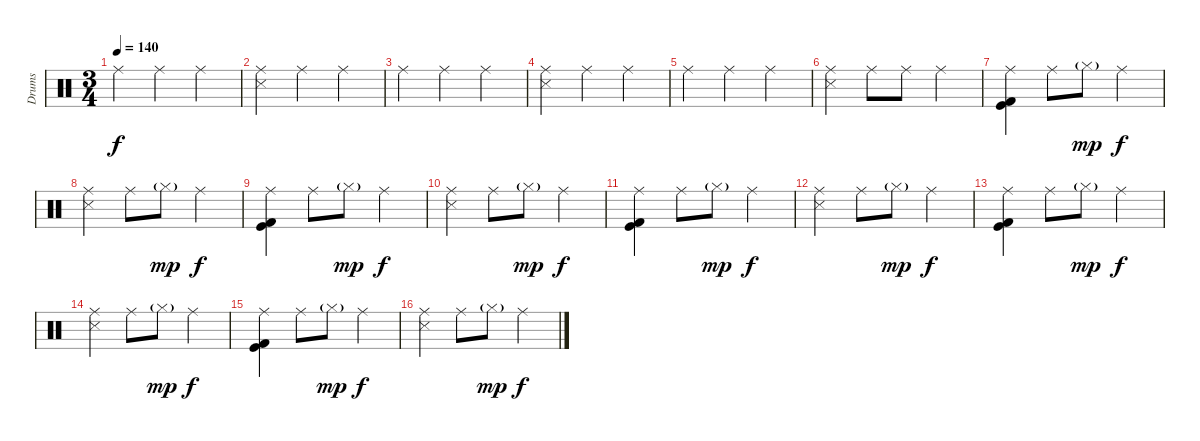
\track ("Drums" "Drums") {instrument percussion}
\staff {score}
\articulation defaults
\ts (3 4)
\tempo 140
\clef neutral
\ks c "Ride (middle)".4{dy f} "Ride (middle)".4 "Ride (middle)".4
|
("Ride (middle)" "Snare (side stick) 3").4 "Ride (middle)".4 "Ride (middle)".4 |
"Ride (middle)".4 "Ride (middle)".4 "Ride (middle)".4 |
("Ride (middle)" "Snare (side stick) 3").4 "Ride (middle)".4 "Ride (middle)".4 |
"Ride (middle)".4 "Ride (middle)".4 "Ride (middle)".4 |
("Ride (middle)" "Snare (side stick) 3").4 "Ride (middle)".8 "Ride (middle)".8 "Ride (middle)".4 |
("Ride (middle)" "Kick (hit) 2" "Kick (hit)").4 "Ride (middle)".8 "Hi-Hat (closed)"{g}.8{dy mp} "Ride (middle)".4{dy f} |
("Ride (middle)" "Snare (side stick) 3").4 "Ride (middle)".8 "Hi-Hat (closed)"{g}.8{dy mp} "Ride (middle)".4{dy f} |
("Ride (middle)" "Kick (hit) 2" "Kick (hit)").4 "Ride (middle)".8 "Hi-Hat (closed)"{g}.8{dy mp} "Ride (middle)".4{dy f} |
("Ride (middle)" "Snare (side stick) 3").4 "Ride (middle)".8 "Hi-Hat (closed)"{g}.8{dy mp} "Ride (middle)".4{dy f} |
("Ride (middle)" "Kick (hit) 2" "Kick (hit)").4 "Ride (middle)".8 "Hi-Hat (closed)"{g}.8{dy mp} "Ride (middle)".4{dy f} |
("Ride (middle)" "Snare (side stick) 3").4 "Ride (middle)".8 "Hi-Hat (closed)"{g}.8{dy mp} "Ride (middle)".4{dy f} |
("Ride (middle)" "Kick (hit) 2" "Kick (hit)").4 "Ride (middle)".8 "Hi-Hat (closed)"{g}.8{dy mp} "Ride (middle)".4{dy f} |
("Ride (middle)" "Snare (side stick) 3").4 "Ride (middle)".8 "Hi-Hat (closed)"{g}.8{dy mp} "Ride (middle)".4{dy f} |
("Ride (middle)" "Kick (hit) 2" "Kick (hit)").4 "Ride (middle)".8 "Hi-Hat (closed)"{g}.8{dy mp} "Ride (middle)".4{dy f} |
("Ride (middle)" "Snare (side stick) 3").4 "Ride (middle)".8 "Hi-Hat (closed)"{g}.8{dy mp} "Ride (middle)".4{dy f}
